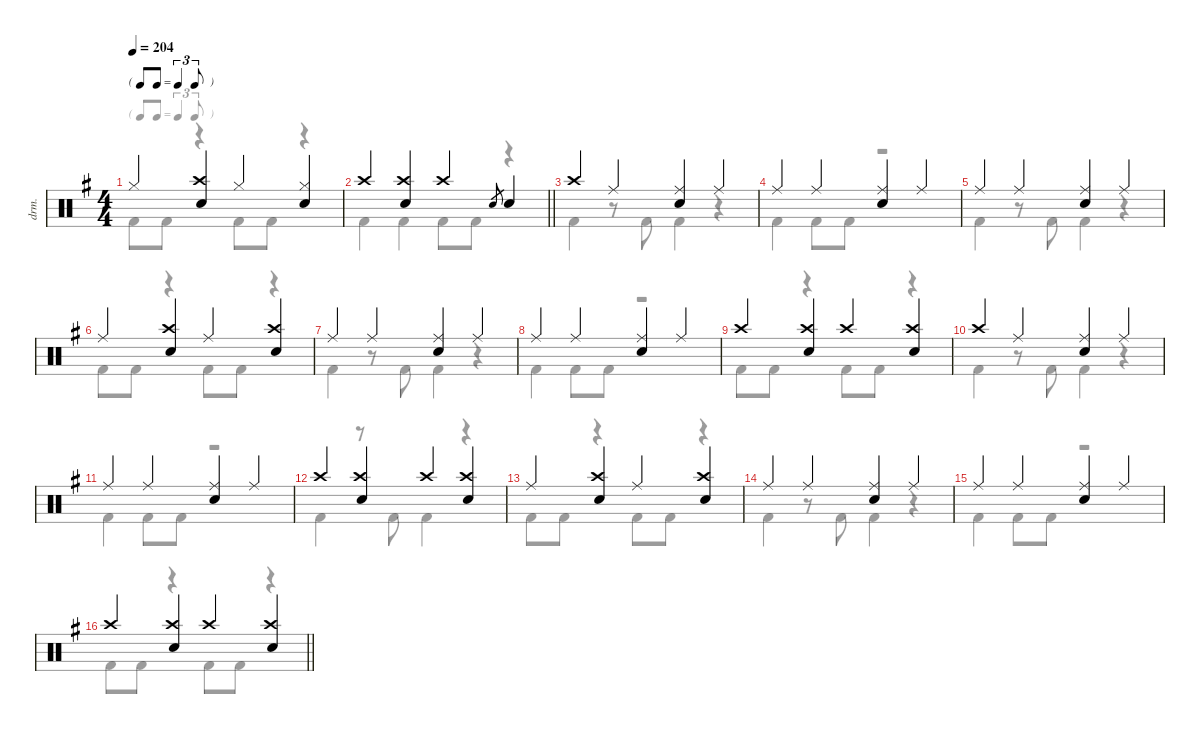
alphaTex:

\defaultSystemsLayout 4
\hideDynamics
\bracketExtendMode nobrackets
\otherSystemsTrackNameOrientation horizontal
\track ("Lars Ulrich" "drm.") {defaultSystemsLayout 8 instrument percussion}
\staff {score}
\articulation defaults
\voice
\ts (4 4)
\tf triplet8th
\tempo 204
\clef neutral
\ks eminor "Hi-Hat (closed)"{acc forcenatural}.4{dy f beam Up}
("Crash high (hit)"{acc forcenatural} "Snare (hit) 2"{acc forcenatural}).4{beam Up} "Hi-Hat (closed)"{acc forcenatural}.4{beam Up} ("Hi-Hat (closed)"{acc forcenatural} "Snare (hit) 2"{acc forcenatural}).4{beam Up} |
\barLineRight lightlight "Crash high (hit)"{acc forcenatural}.4{beam Up}
("Crash high (hit)"{acc forcenatural} "Snare (hit) 2"{acc forcenatural}).4{beam Up} "Crash high (hit)"{acc forcenatural}.4{beam Up} "Snare (hit) 2"{acc forcenatural}.8{gr dy mf beam Up} "Snare (hit) 2"{acc forcenatural}.4{dy f beam Up} |
"Crash high (hit)"{acc forcenatural}.4{beam Up} "Ride (middle)"{acc forcenatural}.4{beam Up} ("Ride (middle)"{acc forcenatural} "Snare (hit) 2"{acc forcenatural}).4{beam Up} "Ride (middle)"{acc forcenatural}.4{beam Up} |
"Ride (middle)"{acc forcenatural}.4{beam Up} "Ride (middle)"{acc forcenatural}.4{beam Up} ("Ride (middle)"{acc forcenatural} "Snare (hit) 2"{acc forcenatural}).4{beam Up} "Ride (middle)"{acc forcenatural}.4{beam Up} |
"Ride (middle)"{acc forcenatural}.4{beam Up} "Ride (middle)"{acc forcenatural}.4{beam Up} ("Ride (middle)"{acc forcenatural} "Snare (hit) 2"{acc forcenatural}).4{beam Up} "Ride (middle)"{acc forcenatural}.4{beam Up} |
"Ride (middle)"{acc forcenatural}.4{beam Up} ("Crash high (hit)"{acc forcenatural} "Snare (hit) 2"{acc forcenatural}).4{beam Up} "Ride (middle)"{acc forcenatural}.4{beam Up} ("Crash high (hit)"{acc forcenatural} "Snare (hit) 2"{acc forcenatural}).4{beam Up} |
"Ride (middle)"{acc forcenatural}.4{beam Up} "Ride (middle)"{acc forcenatural}.4{beam Up} ("Ride (middle)"{acc forcenatural} "Snare (hit) 2"{acc forcenatural}).4{beam Up} "Ride (middle)"{acc forcenatural}.4{beam Up} |
"Ride (middle)"{acc forcenatural}.4{beam Up} "Ride (middle)"{acc forcenatural}.4{beam Up} ("Ride (middle)"{acc forcenatural} "Snare (hit) 2"{acc forcenatural}).4{beam Up} "Ride (middle)"{acc forcenatural}.4{beam Up} |
"Crash high (hit)"{acc forcenatural}.4{beam Up} ("Crash high (hit)"{acc forcenatural} "Snare (hit) 2"{acc forcenatural}).4{beam Up} "Crash high (hit)"{acc forcenatural}.4{beam Up} ("Crash high (hit)"{acc forcenatural} "Snare (hit) 2"{acc forcenatural}).4{beam Up} |
"Crash high (hit)"{acc forcenatural}.4{beam Up} "Ride (middle)"{acc forcenatural}.4{beam Up} ("Ride (middle)"{acc forcenatural} "Snare (hit) 2"{acc forcenatural}).4{beam Up} "Ride (middle)"{acc forcenatural}.4{beam Up} |
"Ride (middle)"{acc forcenatural}.4{beam Up} "Ride (middle)"{acc forcenatural}.4{beam Up} ("Ride (middle)"{acc forcenatural} "Snare (hit) 2"{acc forcenatural}).4{beam Up} "Ride (middle)"{acc forcenatural}.4{beam Up} |
"Crash high (hit)"{acc forcenatural}.4{beam Up} ("Crash high (hit)"{acc forcenatural} "Snare (hit) 2"{acc forcenatural}).4{beam Up} "Crash high (hit)"{acc forcenatural}.4{beam Up} ("Crash high (hit)"{acc forcenatural} "Snare (hit) 2"{acc forcenatural}).4{beam Up} |
"Ride (middle)"{acc forcenatural}.4{beam Up} ("Crash high (hit)"{acc forcenatural} "Snare (hit) 2"{acc forcenatural}).4{beam Up} "Ride (middle)"{acc forcenatural}.4{beam Up} ("Crash high (hit)"{acc forcenatural} "Snare (hit) 2"{acc forcenatural}).4{beam Up} |
"Ride (middle)"{acc forcenatural}.4{beam Up} "Ride (middle)"{acc forcenatural}.4{beam Up} ("Ride (middle)"{acc forcenatural} "Snare (hit) 2"{acc forcenatural}).4{beam Up} "Ride (middle)"{acc forcenatural}.4{beam Up} |
"Ride (middle)"{acc forcenatural}.4{beam Up} "Ride (middle)"{acc forcenatural}.4{beam Up} ("Ride (middle)"{acc forcenatural} "Snare (hit) 2"{acc forcenatural}).4{beam Up} "Ride (middle)"{acc forcenatural}.4{beam Up} |
\barLineRight lightlight "Crash high (hit)"{acc forcenatural}.4{beam Up}
("Crash high (hit)"{acc forcenatural} "Snare (hit) 2"{acc forcenatural}).4{beam Up} "Crash high (hit)"{acc forcenatural}.4{beam Up} ("Crash high (hit)"{acc forcenatural} "Snare (hit) 2"{acc forcenatural}).4{beam Up}
\voice
\clef neutral
\ottava regular
\simile none
\ks eminor "Kick (hit) 2"{acc forcenatural}.8{dy f beam Down} "Kick (hit) 2"{acc forcenatural}.8{beam Down}
r.4{beam Down} "Kick (hit) 2"{acc forcenatural}.8{beam Down} "Kick (hit) 2"{acc forcenatural}.8{beam Down} r.4{beam Down} |
\barLineRight lightlight "Kick (hit) 2"{acc forcenatural}.4{beam Down} "Kick (hit) 2"{acc forcenatural}.4{beam Down} "Kick (hit) 2"{acc forcenatural}.8{beam Down} "Kick (hit) 2"{acc forcenatural}.8{beam Down}
r.4{beam Down} |
"Kick (hit) 2"{acc forcenatural}.4{beam Down} r.8{beam Down} "Kick (hit) 2"{acc forcenatural}.8{beam Down} "Kick (hit) 2"{acc forcenatural}.4{beam Down} r.4{beam Down} |
"Kick (hit) 2"{acc forcenatural}.4{beam Down} "Kick (hit) 2"{acc forcenatural}.8{beam Down} "Kick (hit) 2"{acc forcenatural}.8{beam Down} r.2{beam Down} |
"Kick (hit) 2"{acc forcenatural}.4{beam Down} r.8{beam Down} "Kick (hit) 2"{acc forcenatural}.8{beam Down} "Kick (hit) 2"{acc forcenatural}.4{beam Down} r.4{beam Down} |
"Kick (hit) 2"{acc forcenatural}.8{beam Down} "Kick (hit) 2"{acc forcenatural}.8{beam Down} r.4{beam Down} "Kick (hit) 2"{acc forcenatural}.8{beam Down} "Kick (hit) 2"{acc forcenatural}.8{beam Down} r.4{beam Down} |
"Kick (hit) 2"{acc forcenatural}.4{beam Down} r.8{beam Down} "Kick (hit) 2"{acc forcenatural}.8{beam Down} "Kick (hit) 2"{acc forcenatural}.4{beam Down} r.4{beam Down} |
"Kick (hit) 2"{acc forcenatural}.4{beam Down} "Kick (hit) 2"{acc forcenatural}.8{beam Down} "Kick (hit) 2"{acc forcenatural}.8{beam Down} r.2{beam Down} |
"Kick (hit) 2"{acc forcenatural}.8{beam Down} "Kick (hit) 2"{acc forcenatural}.8{beam Down} r.4{beam Down} "Kick (hit) 2"{acc forcenatural}.8{beam Down} "Kick (hit) 2"{acc forcenatural}.8{beam Down} r.4{beam Down} |
"Kick (hit) 2"{acc forcenatural}.4{beam Down} r.8{beam Down} "Kick (hit) 2"{acc forcenatural}.8{beam Down} "Kick (hit) 2"{acc forcenatural}.4{beam Down} r.4{beam Down} |
"Kick (hit) 2"{acc forcenatural}.4{beam Down} "Kick (hit) 2"{acc forcenatural}.8{beam Down} "Kick (hit) 2"{acc forcenatural}.8{beam Down} r.2{beam Down} |
"Kick (hit) 2"{acc forcenatural}.4{beam Down} r.8{beam Down} "Kick (hit) 2"{acc forcenatural}.8{beam Down} "Kick (hit) 2"{acc forcenatural}.4{beam Down} r.4{beam Down} |
"Kick (hit) 2"{acc forcenatural}.8{beam Down} "Kick (hit) 2"{acc forcenatural}.8{beam Down} r.4{beam Down} "Kick (hit) 2"{acc forcenatural}.8{beam Down} "Kick (hit) 2"{acc forcenatural}.8{beam Down} r.4{beam Down} |
"Kick (hit) 2"{acc forcenatural}.4{beam Down} r.8{beam Down} "Kick (hit) 2"{acc forcenatural}.8{beam Down} "Kick (hit) 2"{acc forcenatural}.4{beam Down} r.4{beam Down} |
"Kick (hit) 2"{acc forcenatural}.4{beam Down} "Kick (hit) 2"{acc forcenatural}.8{beam Down} "Kick (hit) 2"{acc forcenatural}.8{beam Down} r.2{beam Down} |
\barLineRight lightlight "Kick (hit) 2"{acc forcenatural}.8{beam Down} "Kick (hit) 2"{acc forcenatural}.8{beam Down}
r.4{beam Down} "Kick (hit) 2"{acc forcenatural}.8{beam Down} "Kick (hit) 2"{acc forcenatural}.8{beam Down} r.4{beam Down}
